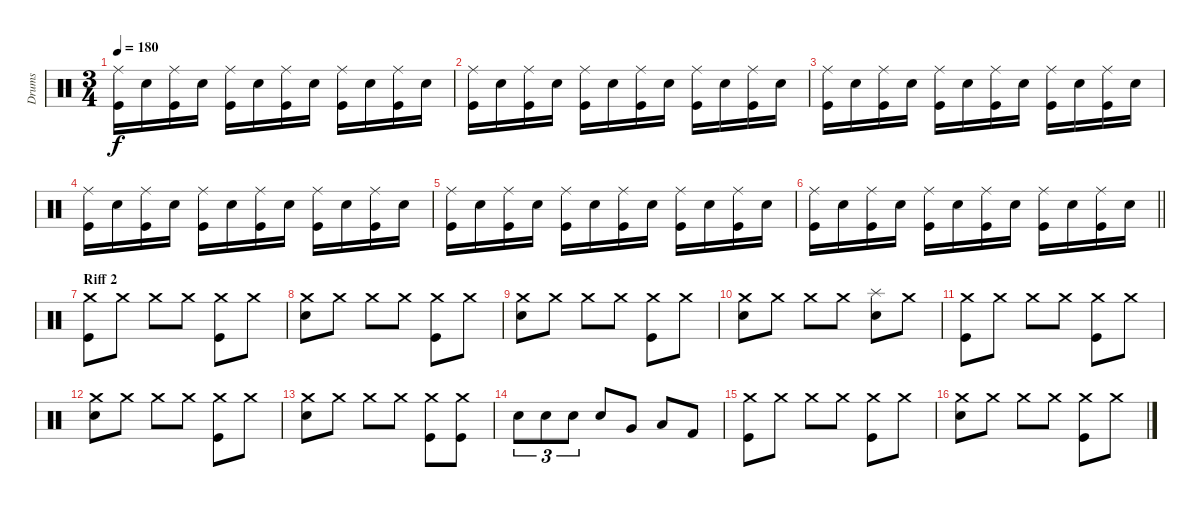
\track ("Drums" "Drums") {instrument percussion}
\staff {score}
\articulation defaults
\ts (3 4)
\tempo 180
\clef neutral
\ks c
("Ride (middle)" "Kick (hit)").16{dy f} "Electric Snare (hit)".16 ("Ride (middle)" "Kick (hit)").16 "Electric Snare (hit)".16 ("Ride (middle)" "Kick (hit)").16 "Electric Snare (hit)".16 ("Ride (middle)" "Kick (hit)").16 "Electric Snare (hit)".16 ("Ride (middle)" "Kick (hit)").16 "Electric Snare (hit)".16 ("Ride (middle)" "Kick (hit)").16 "Electric Snare (hit)".16 |
("Ride (middle)" "Kick (hit)").16 "Electric Snare (hit)".16 ("Ride (middle)" "Kick (hit)").16 "Electric Snare (hit)".16 ("Ride (middle)" "Kick (hit)").16 "Electric Snare (hit)".16 ("Ride (middle)" "Kick (hit)").16 "Electric Snare (hit)".16 ("Ride (middle)" "Kick (hit)").16 "Electric Snare (hit)".16 ("Ride (middle)" "Kick (hit)").16 "Electric Snare (hit)".16 |
("Ride (middle)" "Kick (hit)").16 "Electric Snare (hit)".16 ("Ride (middle)" "Kick (hit)").16 "Electric Snare (hit)".16 ("Ride (middle)" "Kick (hit)").16 "Electric Snare (hit)".16 ("Ride (middle)" "Kick (hit)").16 "Electric Snare (hit)".16 ("Ride (middle)" "Kick (hit)").16 "Electric Snare (hit)".16 ("Ride (middle)" "Kick (hit)").16 "Electric Snare (hit)".16 |
("Ride (middle)" "Kick (hit)").16 "Electric Snare (hit)".16 ("Ride (middle)" "Kick (hit)").16 "Electric Snare (hit)".16 ("Ride (middle)" "Kick (hit)").16 "Electric Snare (hit)".16 ("Ride (middle)" "Kick (hit)").16 "Electric Snare (hit)".16 ("Ride (middle)" "Kick (hit)").16 "Electric Snare (hit)".16 ("Ride (middle)" "Kick (hit)").16 "Electric Snare (hit)".16 |
("Ride (middle)" "Kick (hit)").16 "Electric Snare (hit)".16 ("Ride (middle)" "Kick (hit)").16 "Electric Snare (hit)".16 ("Ride (middle)" "Kick (hit)").16 "Electric Snare (hit)".16 ("Ride (middle)" "Kick (hit)").16 "Electric Snare (hit)".16 ("Ride (middle)" "Kick (hit)").16 "Electric Snare (hit)".16 ("Ride (middle)" "Kick (hit)").16 "Electric Snare (hit)".16 |
\barLineRight lightlight
("Ride (middle)" "Kick (hit)").16 "Electric Snare (hit)".16 ("Ride (middle)" "Kick (hit)").16 "Electric Snare (hit)".16 ("Ride (middle)" "Kick (hit)").16 "Electric Snare (hit)".16 ("Ride (middle)" "Kick (hit)").16 "Electric Snare (hit)".16 ("Ride (middle)" "Kick (hit)").16 "Electric Snare (hit)".16 ("Ride (middle)" "Kick (hit)").16 "Electric Snare (hit)".16 |
\section ("" "Riff 2")
("Crash medium (hit)" "Kick (hit)").8 "Crash medium (hit)".8 "Crash medium (hit)".8 "Crash medium (hit)".8 ("Crash medium (hit)" "Kick (hit)").8 "Crash medium (hit)".8 |
("Crash medium (hit)" "Electric Snare (hit)").8 "Crash medium (hit)".8 "Crash medium (hit)".8 "Crash medium (hit)".8 ("Crash medium (hit)" "Kick (hit)").8 "Crash medium (hit)".8 |
("Crash medium (hit)" "Electric Snare (hit)").8 "Crash medium (hit)".8 "Crash medium (hit)".8 "Crash medium (hit)".8 ("Crash medium (hit)" "Kick (hit)").8 "Crash medium (hit)".8 |
("Crash medium (hit)" "Electric Snare (hit)").8 "Crash medium (hit)".8 "Crash medium (hit)".8 "Crash medium (hit)".8 ("Splash (hit)" "Electric Snare (hit)").8 "Crash medium (hit)".8 |
("Crash medium (hit)" "Kick (hit)").8 "Crash medium (hit)".8 "Crash medium (hit)".8 "Crash medium (hit)".8 ("Crash medium (hit)" "Kick (hit)").8 "Crash medium (hit)".8 |
("Crash medium (hit)" "Electric Snare (hit)").8 "Crash medium (hit)".8 "Crash medium (hit)".8 "Crash medium (hit)".8 ("Crash medium (hit)" "Kick (hit)").8 "Crash medium (hit)".8 |
("Crash medium (hit)" "Electric Snare (hit)").8 "Crash medium (hit)".8 "Crash medium (hit)".8 "Crash medium (hit)".8 ("Crash medium (hit)" "Kick (hit)").8 ("Crash medium (hit)" "Kick (hit)").8 |
"Snare (hit) 2".8{tu (3 2)} "Snare (hit) 2".8{tu (3 2)} "Snare (hit) 2".8{tu (3 2)} "Electric Snare (hit)".8 "Very Low Tom (hit)".8 "Low Floor Tom (hit)".8 "Kick (hit) 2".8 |
("Crash medium (hit)" "Kick (hit)").8 "Crash medium (hit)".8 "Crash medium (hit)".8 "Crash medium (hit)".8 ("Crash medium (hit)" "Kick (hit)").8 "Crash medium (hit)".8 |
("Crash medium (hit)" "Electric Snare (hit)").8 "Crash medium (hit)".8 "Crash medium (hit)".8 "Crash medium (hit)".8 ("Crash medium (hit)" "Kick (hit)").8 "Crash medium (hit)".8
